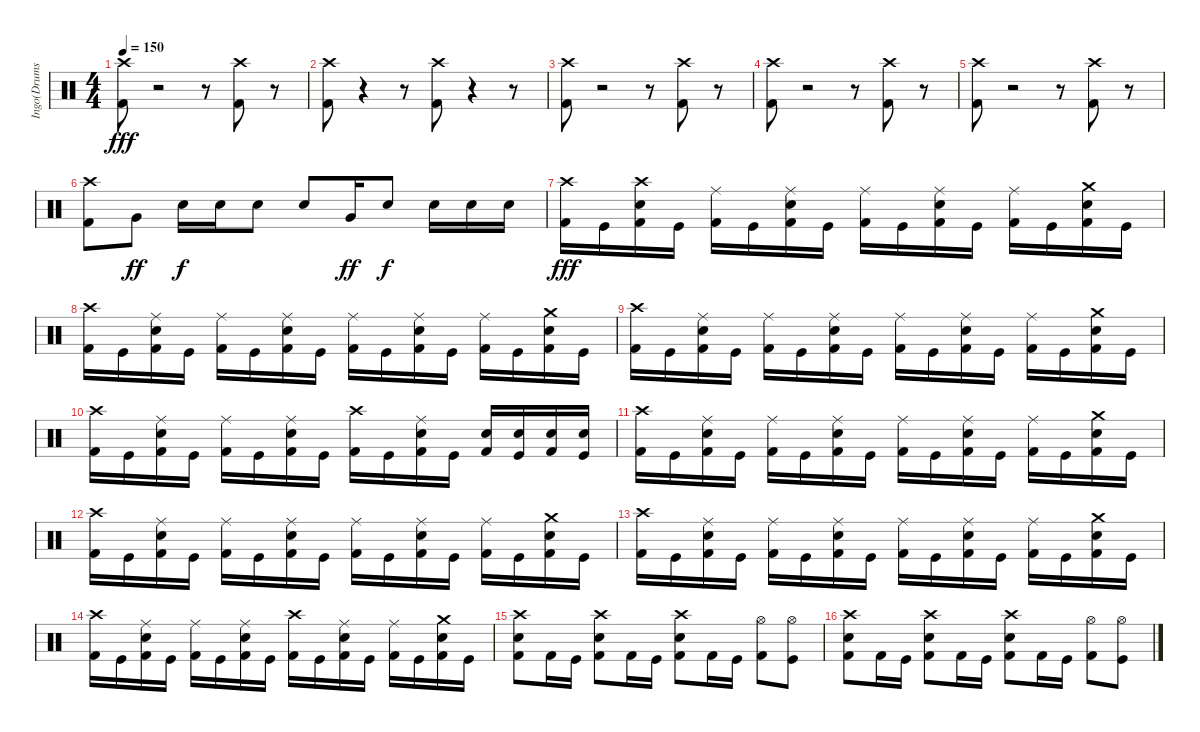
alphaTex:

\track ("Ingo(Drums)" "Ingo(Drums") {instrument percussion}
\staff {score}
\articulation defaults
\ts (4 4)
\tempo 150
\clef neutral
\ks c
("Crash high (hit)" "Kick (hit) 2").8{dy fff} r.2 r.8 ("Crash high (hit)" "Kick (hit) 2").8 r.8 |
("Crash high (hit)" "Kick (hit) 2").8 r.4 r.8 ("Crash high (hit)" "Kick (hit) 2").8 r.4 r.8 |
("Crash high (hit)" "Kick (hit) 2").8 r.2 r.8 ("Crash high (hit)" "Kick (hit) 2").8 r.8 |
("Crash high (hit)" "Kick (hit) 2").8 r.2 r.8 ("Crash high (hit)" "Kick (hit) 2").8 r.8 |
("Crash high (hit)" "Kick (hit) 2").8 r.2 r.8 ("Crash high (hit)" "Kick (hit) 2").8 r.8 |
("Crash high (hit)" "Kick (hit) 2").8 "Very Low Tom (hit)".8{dy ff} "Electric Snare (hit)".16{dy f} "Electric Snare (hit)".16 "Electric Snare (hit)".8 "Electric Snare (hit)".8 "Very Low Tom (hit)".16{dy ff} "Electric Snare (hit)".8{dy f} "Electric Snare (hit)".16 "Electric Snare (hit)".16 "Electric Snare (hit)".16 |
("Crash high (hit)" "Kick (hit) 2").16{dy fff} "Kick (hit)".16 ("Crash high (hit)" "Electric Snare (hit)" "Kick (hit) 2").16 "Kick (hit)".16 ("Ride (middle)" "Kick (hit) 2").16 "Kick (hit)".16 ("Ride (middle)" "Electric Snare (hit)" "Kick (hit) 2").16 "Kick (hit)".16 ("Ride (middle)" "Kick (hit) 2").16 "Kick (hit)".16 ("Ride (middle)" "Electric Snare (hit)" "Kick (hit) 2").16 "Kick (hit)".16 ("Ride (middle)" "Kick (hit) 2").16 "Kick (hit)".16 ("Crash medium (hit)" "Electric Snare (hit)" "Kick (hit) 2").16 "Kick (hit)".16 |
("Crash high (hit)" "Kick (hit) 2").16 "Kick (hit)".16 ("Ride (middle)" "Electric Snare (hit)" "Kick (hit) 2").16 "Kick (hit)".16 ("Ride (middle)" "Kick (hit) 2").16 "Kick (hit)".16 ("Ride (middle)" "Electric Snare (hit)" "Kick (hit) 2").16 "Kick (hit)".16 ("Ride (middle)" "Kick (hit) 2").16 "Kick (hit)".16 ("Ride (middle)" "Electric Snare (hit)" "Kick (hit) 2").16 "Kick (hit)".16 ("Ride (middle)" "Kick (hit) 2").16 "Kick (hit)".16 ("Crash medium (hit)" "Electric Snare (hit)" "Kick (hit) 2").16 "Kick (hit)".16 |
("Crash high (hit)" "Kick (hit) 2").16 "Kick (hit)".16 ("Ride (middle)" "Electric Snare (hit)" "Kick (hit) 2").16 "Kick (hit)".16 ("Ride (middle)" "Kick (hit) 2").16 "Kick (hit)".16 ("Ride (middle)" "Electric Snare (hit)" "Kick (hit) 2").16 "Kick (hit)".16 ("Ride (middle)" "Kick (hit) 2").16 "Kick (hit)".16 ("Ride (middle)" "Electric Snare (hit)" "Kick (hit) 2").16 "Kick (hit)".16 ("Ride (middle)" "Kick (hit) 2").16 "Kick (hit)".16 ("Crash medium (hit)" "Electric Snare (hit)" "Kick (hit) 2").16 "Kick (hit)".16 |
("Crash high (hit)" "Kick (hit) 2").16 "Kick (hit)".16 ("Ride (middle)" "Electric Snare (hit)" "Kick (hit) 2").16 "Kick (hit)".16 ("Ride (middle)" "Kick (hit) 2").16 "Kick (hit)".16 ("Ride (middle)" "Electric Snare (hit)" "Kick (hit) 2").16 "Kick (hit)".16 ("Crash high (hit)" "Kick (hit) 2").16 "Kick (hit)".16 ("Ride (middle)" "Electric Snare (hit)" "Kick (hit) 2").16 "Kick (hit)".16 ("Electric Snare (hit)" "Kick (hit) 2").16 ("Electric Snare (hit)" "Kick (hit)").16 ("Electric Snare (hit)" "Kick (hit) 2").16 ("Electric Snare (hit)" "Kick (hit)").16 |
("Crash high (hit)" "Kick (hit) 2").16 "Kick (hit)".16 ("Ride (middle)" "Electric Snare (hit)" "Kick (hit) 2").16 "Kick (hit)".16 ("Ride (middle)" "Kick (hit) 2").16 "Kick (hit)".16 ("Ride (middle)" "Electric Snare (hit)" "Kick (hit) 2").16 "Kick (hit)".16 ("Ride (middle)" "Kick (hit) 2").16 "Kick (hit)".16 ("Ride (middle)" "Electric Snare (hit)" "Kick (hit) 2").16 "Kick (hit)".16 ("Ride (middle)" "Kick (hit) 2").16 "Kick (hit)".16 ("Crash medium (hit)" "Electric Snare (hit)" "Kick (hit) 2").16 "Kick (hit)".16 |
("Crash high (hit)" "Kick (hit) 2").16 "Kick (hit)".16 ("Ride (middle)" "Electric Snare (hit)" "Kick (hit) 2").16 "Kick (hit)".16 ("Ride (middle)" "Kick (hit) 2").16 "Kick (hit)".16 ("Ride (middle)" "Electric Snare (hit)" "Kick (hit) 2").16 "Kick (hit)".16 ("Ride (middle)" "Kick (hit) 2").16 "Kick (hit)".16 ("Ride (middle)" "Electric Snare (hit)" "Kick (hit) 2").16 "Kick (hit)".16 ("Ride (middle)" "Kick (hit) 2").16 "Kick (hit)".16 ("Crash medium (hit)" "Electric Snare (hit)" "Kick (hit) 2").16 "Kick (hit)".16 |
("Crash high (hit)" "Kick (hit) 2").16 "Kick (hit)".16 ("Ride (middle)" "Electric Snare (hit)" "Kick (hit) 2").16 "Kick (hit)".16 ("Ride (middle)" "Kick (hit) 2").16 "Kick (hit)".16 ("Ride (middle)" "Electric Snare (hit)" "Kick (hit) 2").16 "Kick (hit)".16 ("Ride (middle)" "Kick (hit) 2").16 "Kick (hit)".16 ("Ride (middle)" "Electric Snare (hit)" "Kick (hit) 2").16 "Kick (hit)".16 ("Ride (middle)" "Kick (hit) 2").16 "Kick (hit)".16 ("Crash medium (hit)" "Electric Snare (hit)" "Kick (hit) 2").16 "Kick (hit)".16 |
("Crash high (hit)" "Kick (hit) 2").16 "Kick (hit)".16 ("Ride (middle)" "Electric Snare (hit)" "Kick (hit) 2").16 "Kick (hit)".16 ("Ride (middle)" "Kick (hit) 2").16 "Kick (hit)".16 ("Ride (middle)" "Electric Snare (hit)" "Kick (hit) 2").16 "Kick (hit)".16 ("Crash high (hit)" "Kick (hit) 2").16 "Kick (hit)".16 ("Ride (middle)" "Electric Snare (hit)" "Kick (hit) 2").16 "Kick (hit)".16 ("Ride (middle)" "Kick (hit) 2").16 "Kick (hit)".16 ("Crash medium (hit)" "Electric Snare (hit)" "Kick (hit) 2").16 "Kick (hit)".16 |
("Crash high (hit)" "Electric Snare (hit)" "Kick (hit) 2").8 "Kick (hit) 2".16 "Kick (hit)".16 ("Crash high (hit)" "Electric Snare (hit)" "Kick (hit) 2").8 "Kick (hit) 2".16 "Kick (hit)".16 ("Crash high (hit)" "Electric Snare (hit)" "Kick (hit) 2").8 "Kick (hit) 2".16 "Kick (hit)".16 ("Hi-Hat (open)" "Kick (hit) 2").8 ("Hi-Hat (open)" "Kick (hit)").8 |
("Crash high (hit)" "Electric Snare (hit)" "Kick (hit) 2").8 "Kick (hit) 2".16 "Kick (hit)".16 ("Crash high (hit)" "Electric Snare (hit)" "Kick (hit) 2").8 "Kick (hit) 2".16 "Kick (hit)".16 ("Crash high (hit)" "Electric Snare (hit)" "Kick (hit) 2").8 "Kick (hit) 2".16 "Kick (hit)".16 ("Hi-Hat (open)" "Kick (hit) 2").8 ("Hi-Hat (open)" "Kick (hit)").8
